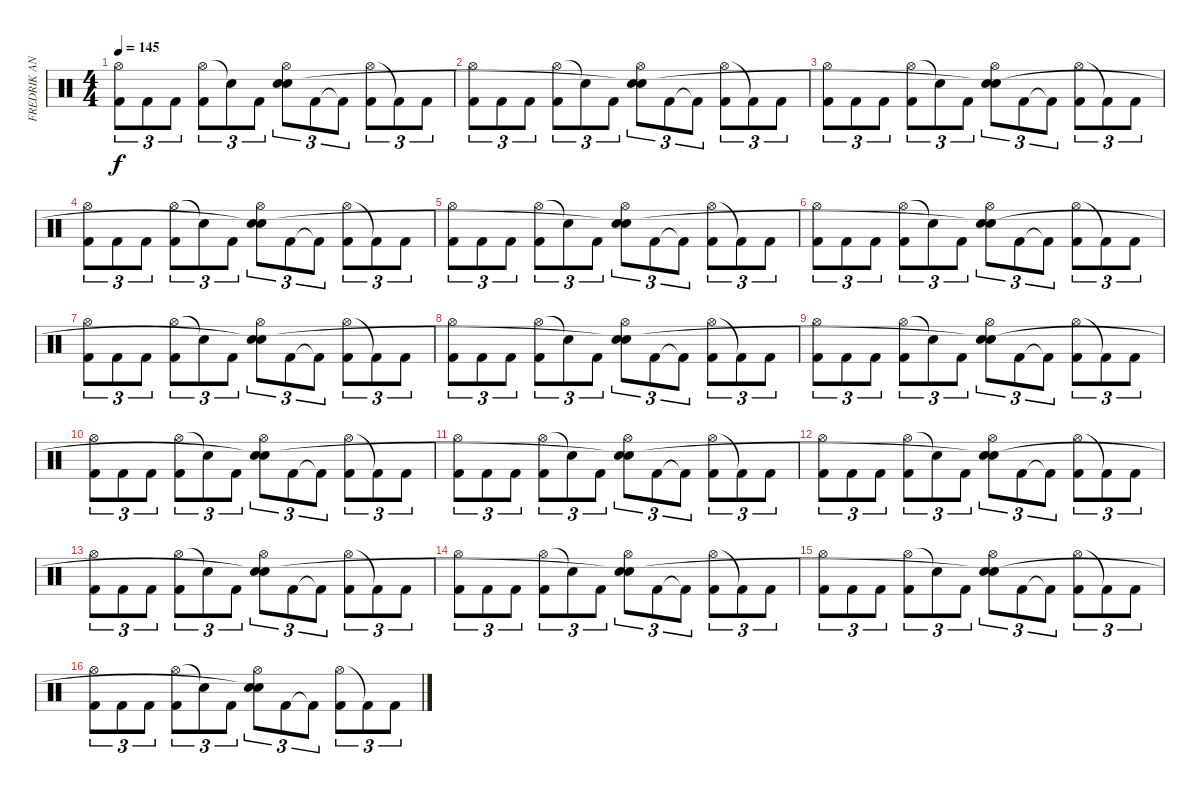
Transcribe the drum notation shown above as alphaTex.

\track ("FREDRIK ANDERSSON" "FREDRIK AN") {instrument percussion}
\staff {score}
\articulation defaults
\ts (4 4)
\tempo 145
\clef neutral
\ks c
("Hi-Hat (open)" "Kick (hit) 2").8{tu (3 2) dy f} "Kick (hit) 2".8{tu (3 2)} "Kick (hit) 2".8{tu (3 2)} ("Hi-Hat (open)" "Kick (hit) 2").8{tu (3 2)} "Snare (hit)"{t}.8{tu (3 2)} "Kick (hit) 2".8{tu (3 2)} ("Hi-Hat (open)" "Snare (hit) 2" "Snare (hit)").8{tu (3 2)} "Kick (hit) 2".8{tu (3 2)} "Kick (hit) 2"{t}.8{tu (3 2)} ("Hi-Hat (open)" "Kick (hit) 2").8{tu (3 2)} "Kick (hit) 2"{t}.8{tu (3 2)} "Kick (hit) 2".8{tu (3 2)} |
("Hi-Hat (open)" "Kick (hit) 2").8{tu (3 2)} "Kick (hit) 2".8{tu (3 2)} "Kick (hit) 2".8{tu (3 2)} ("Hi-Hat (open)" "Kick (hit) 2").8{tu (3 2)} "Snare (hit)"{t}.8{tu (3 2)} "Kick (hit) 2".8{tu (3 2)} ("Hi-Hat (open)" "Snare (hit) 2" "Snare (hit)"{t}).8{tu (3 2)} "Kick (hit) 2".8{tu (3 2)} "Kick (hit) 2"{t}.8{tu (3 2)} ("Hi-Hat (open)" "Kick (hit) 2").8{tu (3 2)} "Kick (hit) 2"{t}.8{tu (3 2)} "Kick (hit) 2".8{tu (3 2)} |
("Hi-Hat (open)" "Kick (hit) 2").8{tu (3 2)} "Kick (hit) 2".8{tu (3 2)} "Kick (hit) 2".8{tu (3 2)} ("Hi-Hat (open)" "Kick (hit) 2").8{tu (3 2)} "Snare (hit)"{t}.8{tu (3 2)} "Kick (hit) 2".8{tu (3 2)} ("Hi-Hat (open)" "Snare (hit) 2" "Snare (hit)"{t}).8{tu (3 2)} "Kick (hit) 2".8{tu (3 2)} "Kick (hit) 2"{t}.8{tu (3 2)} ("Hi-Hat (open)" "Kick (hit) 2").8{tu (3 2)} "Kick (hit) 2"{t}.8{tu (3 2)} "Kick (hit) 2".8{tu (3 2)} |
("Hi-Hat (open)" "Kick (hit) 2").8{tu (3 2)} "Kick (hit) 2".8{tu (3 2)} "Kick (hit) 2".8{tu (3 2)} ("Hi-Hat (open)" "Kick (hit) 2").8{tu (3 2)} "Snare (hit)"{t}.8{tu (3 2)} "Kick (hit) 2".8{tu (3 2)} ("Hi-Hat (open)" "Snare (hit) 2" "Snare (hit)"{t}).8{tu (3 2)} "Kick (hit) 2".8{tu (3 2)} "Kick (hit) 2"{t}.8{tu (3 2)} ("Hi-Hat (open)" "Kick (hit) 2").8{tu (3 2)} "Kick (hit) 2"{t}.8{tu (3 2)} "Kick (hit) 2".8{tu (3 2)} |
("Hi-Hat (open)" "Kick (hit) 2").8{tu (3 2)} "Kick (hit) 2".8{tu (3 2)} "Kick (hit) 2".8{tu (3 2)} ("Hi-Hat (open)" "Kick (hit) 2").8{tu (3 2)} "Snare (hit)"{t}.8{tu (3 2)} "Kick (hit) 2".8{tu (3 2)} ("Hi-Hat (open)" "Snare (hit) 2" "Snare (hit)"{t}).8{tu (3 2)} "Kick (hit) 2".8{tu (3 2)} "Kick (hit) 2"{t}.8{tu (3 2)} ("Hi-Hat (open)" "Kick (hit) 2").8{tu (3 2)} "Kick (hit) 2"{t}.8{tu (3 2)} "Kick (hit) 2".8{tu (3 2)} |
("Hi-Hat (open)" "Kick (hit) 2").8{tu (3 2)} "Kick (hit) 2".8{tu (3 2)} "Kick (hit) 2".8{tu (3 2)} ("Hi-Hat (open)" "Kick (hit) 2").8{tu (3 2)} "Snare (hit)"{t}.8{tu (3 2)} "Kick (hit) 2".8{tu (3 2)} ("Hi-Hat (open)" "Snare (hit) 2" "Snare (hit)"{t}).8{tu (3 2)} "Kick (hit) 2".8{tu (3 2)} "Kick (hit) 2"{t}.8{tu (3 2)} ("Hi-Hat (open)" "Kick (hit) 2").8{tu (3 2)} "Kick (hit) 2"{t}.8{tu (3 2)} "Kick (hit) 2".8{tu (3 2)} |
("Hi-Hat (open)" "Kick (hit) 2").8{tu (3 2)} "Kick (hit) 2".8{tu (3 2)} "Kick (hit) 2".8{tu (3 2)} ("Hi-Hat (open)" "Kick (hit) 2").8{tu (3 2)} "Snare (hit)"{t}.8{tu (3 2)} "Kick (hit) 2".8{tu (3 2)} ("Hi-Hat (open)" "Snare (hit) 2" "Snare (hit)"{t}).8{tu (3 2)} "Kick (hit) 2".8{tu (3 2)} "Kick (hit) 2"{t}.8{tu (3 2)} ("Hi-Hat (open)" "Kick (hit) 2").8{tu (3 2)} "Kick (hit) 2"{t}.8{tu (3 2)} "Kick (hit) 2".8{tu (3 2)} |
("Hi-Hat (open)" "Kick (hit) 2").8{tu (3 2)} "Kick (hit) 2".8{tu (3 2)} "Kick (hit) 2".8{tu (3 2)} ("Hi-Hat (open)" "Kick (hit) 2").8{tu (3 2)} "Snare (hit)"{t}.8{tu (3 2)} "Kick (hit) 2".8{tu (3 2)} ("Hi-Hat (open)" "Snare (hit) 2" "Snare (hit)"{t}).8{tu (3 2)} "Kick (hit) 2".8{tu (3 2)} "Kick (hit) 2"{t}.8{tu (3 2)} ("Hi-Hat (open)" "Kick (hit) 2").8{tu (3 2)} "Kick (hit) 2"{t}.8{tu (3 2)} "Kick (hit) 2".8{tu (3 2)} |
("Hi-Hat (open)" "Kick (hit) 2").8{tu (3 2)} "Kick (hit) 2".8{tu (3 2)} "Kick (hit) 2".8{tu (3 2)} ("Hi-Hat (open)" "Kick (hit) 2").8{tu (3 2)} "Snare (hit)"{t}.8{tu (3 2)} "Kick (hit) 2".8{tu (3 2)} ("Hi-Hat (open)" "Snare (hit) 2" "Snare (hit)"{t}).8{tu (3 2)} "Kick (hit) 2".8{tu (3 2)} "Kick (hit) 2"{t}.8{tu (3 2)} ("Hi-Hat (open)" "Kick (hit) 2").8{tu (3 2)} "Kick (hit) 2"{t}.8{tu (3 2)} "Kick (hit) 2".8{tu (3 2)} |
("Hi-Hat (open)" "Kick (hit) 2").8{tu (3 2)} "Kick (hit) 2".8{tu (3 2)} "Kick (hit) 2".8{tu (3 2)} ("Hi-Hat (open)" "Kick (hit) 2").8{tu (3 2)} "Snare (hit)"{t}.8{tu (3 2)} "Kick (hit) 2".8{tu (3 2)} ("Hi-Hat (open)" "Snare (hit) 2" "Snare (hit)"{t}).8{tu (3 2)} "Kick (hit) 2".8{tu (3 2)} "Kick (hit) 2"{t}.8{tu (3 2)} ("Hi-Hat (open)" "Kick (hit) 2").8{tu (3 2)} "Kick (hit) 2"{t}.8{tu (3 2)} "Kick (hit) 2".8{tu (3 2)} |
("Hi-Hat (open)" "Kick (hit) 2").8{tu (3 2)} "Kick (hit) 2".8{tu (3 2)} "Kick (hit) 2".8{tu (3 2)} ("Hi-Hat (open)" "Kick (hit) 2").8{tu (3 2)} "Snare (hit)"{t}.8{tu (3 2)} "Kick (hit) 2".8{tu (3 2)} ("Hi-Hat (open)" "Snare (hit) 2" "Snare (hit)"{t}).8{tu (3 2)} "Kick (hit) 2".8{tu (3 2)} "Kick (hit) 2"{t}.8{tu (3 2)} ("Hi-Hat (open)" "Kick (hit) 2").8{tu (3 2)} "Kick (hit) 2"{t}.8{tu (3 2)} "Kick (hit) 2".8{tu (3 2)} |
("Hi-Hat (open)" "Kick (hit) 2").8{tu (3 2)} "Kick (hit) 2".8{tu (3 2)} "Kick (hit) 2".8{tu (3 2)} ("Hi-Hat (open)" "Kick (hit) 2").8{tu (3 2)} "Snare (hit)"{t}.8{tu (3 2)} "Kick (hit) 2".8{tu (3 2)} ("Hi-Hat (open)" "Snare (hit) 2" "Snare (hit)"{t}).8{tu (3 2)} "Kick (hit) 2".8{tu (3 2)} "Kick (hit) 2"{t}.8{tu (3 2)} ("Hi-Hat (open)" "Kick (hit) 2").8{tu (3 2)} "Kick (hit) 2"{t}.8{tu (3 2)} "Kick (hit) 2".8{tu (3 2)} |
("Hi-Hat (open)" "Kick (hit) 2").8{tu (3 2)} "Kick (hit) 2".8{tu (3 2)} "Kick (hit) 2".8{tu (3 2)} ("Hi-Hat (open)" "Kick (hit) 2").8{tu (3 2)} "Snare (hit)"{t}.8{tu (3 2)} "Kick (hit) 2".8{tu (3 2)} ("Hi-Hat (open)" "Snare (hit) 2" "Snare (hit)"{t}).8{tu (3 2)} "Kick (hit) 2".8{tu (3 2)} "Kick (hit) 2"{t}.8{tu (3 2)} ("Hi-Hat (open)" "Kick (hit) 2").8{tu (3 2)} "Kick (hit) 2"{t}.8{tu (3 2)} "Kick (hit) 2".8{tu (3 2)} |
("Hi-Hat (open)" "Kick (hit) 2").8{tu (3 2)} "Kick (hit) 2".8{tu (3 2)} "Kick (hit) 2".8{tu (3 2)} ("Hi-Hat (open)" "Kick (hit) 2").8{tu (3 2)} "Snare (hit)"{t}.8{tu (3 2)} "Kick (hit) 2".8{tu (3 2)} ("Hi-Hat (open)" "Snare (hit) 2" "Snare (hit)"{t}).8{tu (3 2)} "Kick (hit) 2".8{tu (3 2)} "Kick (hit) 2"{t}.8{tu (3 2)} ("Hi-Hat (open)" "Kick (hit) 2").8{tu (3 2)} "Kick (hit) 2"{t}.8{tu (3 2)} "Kick (hit) 2".8{tu (3 2)} |
("Hi-Hat (open)" "Kick (hit) 2").8{tu (3 2)} "Kick (hit) 2".8{tu (3 2)} "Kick (hit) 2".8{tu (3 2)} ("Hi-Hat (open)" "Kick (hit) 2").8{tu (3 2)} "Snare (hit)"{t}.8{tu (3 2)} "Kick (hit) 2".8{tu (3 2)} ("Hi-Hat (open)" "Snare (hit) 2" "Snare (hit)"{t}).8{tu (3 2)} "Kick (hit) 2".8{tu (3 2)} "Kick (hit) 2"{t}.8{tu (3 2)} ("Hi-Hat (open)" "Kick (hit) 2").8{tu (3 2)} "Kick (hit) 2"{t}.8{tu (3 2)} "Kick (hit) 2".8{tu (3 2)} |
("Hi-Hat (open)" "Kick (hit) 2").8{tu (3 2)} "Kick (hit) 2".8{tu (3 2)} "Kick (hit) 2".8{tu (3 2)} ("Hi-Hat (open)" "Kick (hit) 2").8{tu (3 2)} "Snare (hit)"{t}.8{tu (3 2)} "Kick (hit) 2".8{tu (3 2)} ("Hi-Hat (open)" "Snare (hit) 2" "Snare (hit)"{t}).8{tu (3 2)} "Kick (hit) 2".8{tu (3 2)} "Kick (hit) 2"{t}.8{tu (3 2)} ("Hi-Hat (open)" "Kick (hit) 2").8{tu (3 2)} "Kick (hit) 2"{t}.8{tu (3 2)} "Kick (hit) 2".8{tu (3 2)}
